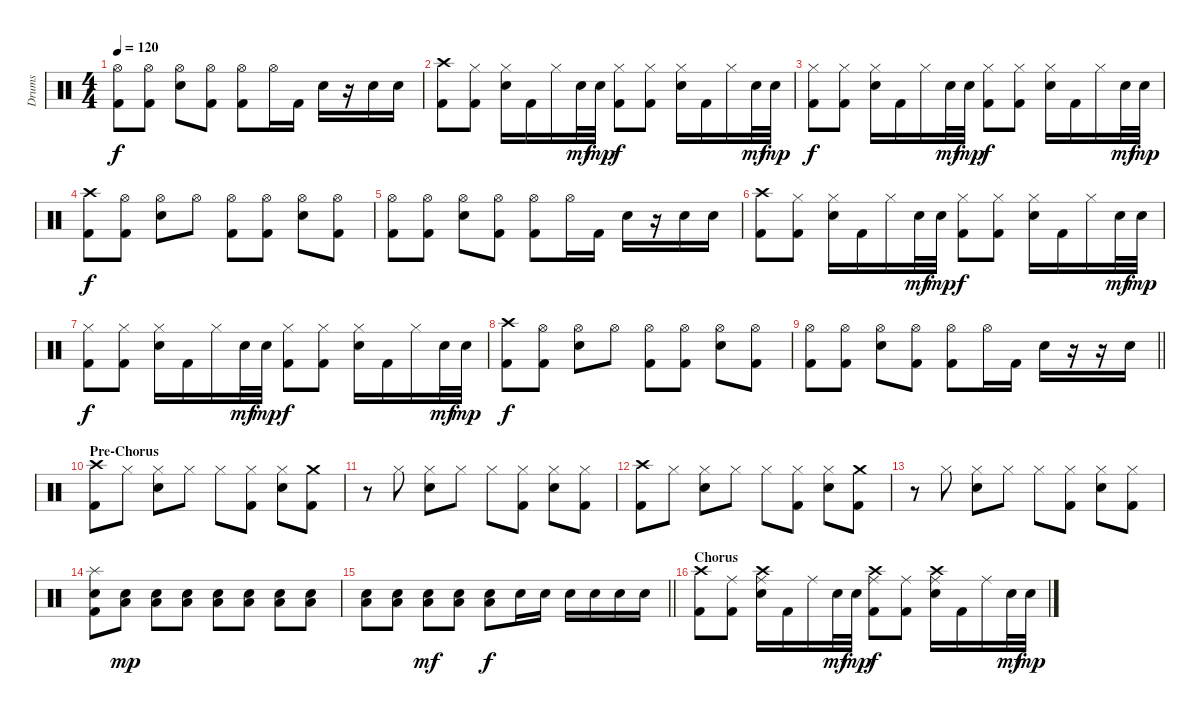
\track ("Drums" "Drums") {instrument percussion}
\staff {score}
\articulation defaults
\ts (4 4)
\tempo 120
\clef neutral
\ks c
("Hi-Hat (open)" "Kick (hit) 2").8{dy f} ("Hi-Hat (open)" "Kick (hit) 2").8 ("Hi-Hat (open)" "Snare (hit) 2").8 ("Hi-Hat (open)" "Kick (hit) 2").8 ("Hi-Hat (open)" "Kick (hit) 2").8 "Hi-Hat (open)".16 "Kick (hit) 2".16 "Snare (hit) 2".16 r.16 "Snare (hit) 2".16 "Snare (hit) 2".16 |
("Crash high (hit)" "Kick (hit) 2").8 ("Hi-Hat (closed)" "Kick (hit) 2").8 ("Hi-Hat (closed)" "Snare (hit) 2").16 "Kick (hit) 2".16 "Hi-Hat (closed)".16 "Snare (hit) 2".32{dy mf} "Snare (hit) 2".32{dy mp} ("Hi-Hat (closed)" "Kick (hit) 2").8{dy f} ("Hi-Hat (closed)" "Kick (hit) 2").8 ("Hi-Hat (closed)" "Snare (hit) 2").16 "Kick (hit) 2".16 "Hi-Hat (closed)".16 "Snare (hit) 2".32{dy mf} "Snare (hit) 2".32{dy mp} |
("Hi-Hat (closed)" "Kick (hit) 2").8{dy f} ("Hi-Hat (closed)" "Kick (hit) 2").8 ("Hi-Hat (closed)" "Snare (hit) 2").16 "Kick (hit) 2".16 "Hi-Hat (closed)".16 "Snare (hit) 2".32{dy mf} "Snare (hit) 2".32{dy mp} ("Hi-Hat (closed)" "Kick (hit) 2").8{dy f} ("Hi-Hat (closed)" "Kick (hit) 2").8 ("Hi-Hat (closed)" "Snare (hit) 2").16 "Kick (hit) 2".16 "Hi-Hat (closed)".16 "Snare (hit) 2".32{dy mf} "Snare (hit) 2".32{dy mp} |
("Crash high (hit)" "Kick (hit) 2").8{dy f} ("Hi-Hat (open)" "Kick (hit) 2").8 ("Hi-Hat (open)" "Snare (hit) 2").8 "Hi-Hat (open)".8 ("Hi-Hat (open)" "Kick (hit) 2").8 ("Hi-Hat (open)" "Kick (hit) 2").8 ("Hi-Hat (open)" "Snare (hit) 2").8 ("Hi-Hat (open)" "Kick (hit) 2").8 |
("Hi-Hat (open)" "Kick (hit) 2").8 ("Hi-Hat (open)" "Kick (hit) 2").8 ("Hi-Hat (open)" "Snare (hit) 2").8 ("Hi-Hat (open)" "Kick (hit) 2").8 ("Hi-Hat (open)" "Kick (hit) 2").8 "Hi-Hat (open)".16 "Kick (hit) 2".16 "Snare (hit) 2".16 r.16 "Snare (hit) 2".16 "Snare (hit) 2".16 |
("Crash high (hit)" "Kick (hit) 2").8 ("Hi-Hat (closed)" "Kick (hit) 2").8 ("Hi-Hat (closed)" "Snare (hit) 2").16 "Kick (hit) 2".16 "Hi-Hat (closed)".16 "Snare (hit) 2".32{dy mf} "Snare (hit) 2".32{dy mp} ("Hi-Hat (closed)" "Kick (hit) 2").8{dy f} ("Hi-Hat (closed)" "Kick (hit) 2").8 ("Hi-Hat (closed)" "Snare (hit) 2").16 "Kick (hit) 2".16 "Hi-Hat (closed)".16 "Snare (hit) 2".32{dy mf} "Snare (hit) 2".32{dy mp} |
("Hi-Hat (closed)" "Kick (hit) 2").8{dy f} ("Hi-Hat (closed)" "Kick (hit) 2").8 ("Hi-Hat (closed)" "Snare (hit) 2").16 "Kick (hit) 2".16 "Hi-Hat (closed)".16 "Snare (hit) 2".32{dy mf} "Snare (hit) 2".32{dy mp} ("Hi-Hat (closed)" "Kick (hit) 2").8{dy f} ("Hi-Hat (closed)" "Kick (hit) 2").8 ("Hi-Hat (closed)" "Snare (hit) 2").16 "Kick (hit) 2".16 "Hi-Hat (closed)".16 "Snare (hit) 2".32{dy mf} "Snare (hit) 2".32{dy mp} |
("Crash high (hit)" "Kick (hit) 2").8{dy f} ("Hi-Hat (open)" "Kick (hit) 2").8 ("Hi-Hat (open)" "Snare (hit) 2").8 "Hi-Hat (open)".8 ("Hi-Hat (open)" "Kick (hit) 2").8 ("Hi-Hat (open)" "Kick (hit) 2").8 ("Hi-Hat (open)" "Snare (hit) 2").8 ("Hi-Hat (open)" "Kick (hit) 2").8 |
\barLineRight lightlight
("Hi-Hat (open)" "Kick (hit) 2").8 ("Hi-Hat (open)" "Kick (hit) 2").8 ("Hi-Hat (open)" "Snare (hit) 2").8 ("Hi-Hat (open)" "Kick (hit) 2").8 ("Hi-Hat (open)" "Kick (hit) 2").8 "Hi-Hat (open)".16 "Kick (hit) 2".16 "Snare (hit) 2".16 r.16 r.16 "Snare (hit) 2".16 |
\section ("" "Pre-Chorus")
("Crash high (hit)" "Kick (hit) 2").8 "Hi-Hat (closed)".8 ("Hi-Hat (closed)" "Snare (hit) 2").8 "Hi-Hat (closed)".8 "Hi-Hat (closed)".8 ("Hi-Hat (closed)" "Kick (hit) 2").8 ("Hi-Hat (closed)" "Snare (hit) 2").8 ("Crash medium (hit)" "Kick (hit) 2").8 |
r.8 "Hi-Hat (closed)".8 ("Hi-Hat (closed)" "Snare (hit) 2").8 "Hi-Hat (closed)".8 "Hi-Hat (closed)".8 ("Hi-Hat (closed)" "Kick (hit) 2").8 ("Hi-Hat (closed)" "Snare (hit) 2").8 ("Hi-Hat (closed)" "Kick (hit) 2").8 |
("Crash high (hit)" "Kick (hit) 2").8 "Hi-Hat (closed)".8 ("Hi-Hat (closed)" "Snare (hit) 2").8 "Hi-Hat (closed)".8 "Hi-Hat (closed)".8 ("Hi-Hat (closed)" "Kick (hit) 2").8 ("Hi-Hat (closed)" "Snare (hit) 2").8 ("Crash medium (hit)" "Kick (hit) 2").8 |
r.8 "Hi-Hat (closed)".8 ("Hi-Hat (closed)" "Snare (hit) 2").8 "Hi-Hat (closed)".8 "Hi-Hat (closed)".8 ("Hi-Hat (closed)" "Kick (hit) 2").8 ("Hi-Hat (closed)" "Snare (hit) 2").8 ("Hi-Hat (closed)" "Kick (hit) 2").8 |
("Splash (hit)" "Snare (hit) 2" "Kick (hit) 2").8 ("Low Tom (hit)" "Snare (hit) 2").8{dy mp} ("Low Tom (hit)" "Snare (hit) 2").8 ("Low Tom (hit)" "Snare (hit) 2").8 ("Low Tom (hit)" "Snare (hit) 2").8 ("Low Tom (hit)" "Snare (hit) 2").8 ("Low Tom (hit)" "Snare (hit) 2").8 ("Low Tom (hit)" "Snare (hit) 2").8 |
\barLineRight lightlight
("Low Tom (hit)" "Snare (hit) 2").8 ("Low Tom (hit)" "Snare (hit) 2").8 ("Low Tom (hit)" "Snare (hit) 2").8{dy mf} ("Low Tom (hit)" "Snare (hit) 2").8 ("Low Tom (hit)" "Snare (hit) 2").8{dy f} "Snare (hit) 2".16 "Snare (hit) 2".16 "Snare (hit) 2".16 "Snare (hit) 2".16 "Snare (hit) 2".16 "Snare (hit) 2".16 |
\section ("" "Chorus")
("Crash high (hit)" "Kick (hit) 2").8 ("Ride (middle)" "Kick (hit) 2").8 ("Ride (middle)" "Crash high (hit)" "Snare (hit) 2").16 "Kick (hit) 2".16 "Ride (middle)".16 "Snare (hit) 2".32{dy mf} "Snare (hit) 2".32{dy mp} ("Ride (middle)" "Crash high (hit)" "Kick (hit) 2").8{dy f} ("Ride (middle)" "Kick (hit) 2").8 ("Ride (middle)" "Crash high (hit)" "Snare (hit) 2").16 "Kick (hit) 2".16 "Ride (middle)".16 "Snare (hit) 2".32{dy mf} "Snare (hit) 2".32{dy mp}
